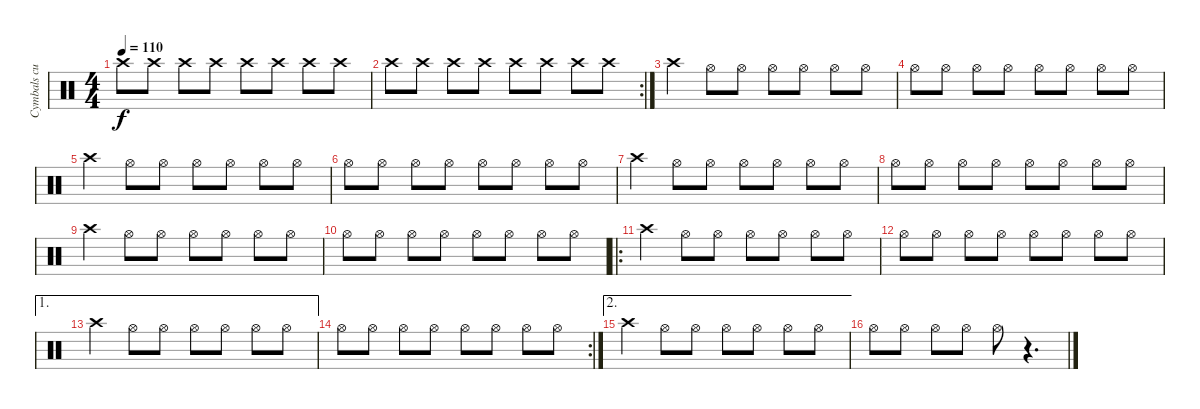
\track ("Cymbals cuz I'm lazy" "Cymbals cu") {instrument percussion}
\staff {score}
\articulation defaults
\ts (4 4)
\tempo 110
\clef neutral
\ks c "Crash high (hit)".8{dy f} "Crash high (hit)".8 "Crash high (hit)".8 "Crash high (hit)".8 "Crash high (hit)".8 "Crash high (hit)".8 "Crash high (hit)".8 "Crash high (hit)".8
|
\rc 2 "Crash high (hit)".8 "Crash high (hit)".8 "Crash high (hit)".8 "Crash high (hit)".8 "Crash high (hit)".8 "Crash high (hit)".8 "Crash high (hit)".8 "Crash high (hit)".8
|
"Crash high (hit)".4 "Hi-Hat (open)".8 "Hi-Hat (open)".8 "Hi-Hat (open)".8 "Hi-Hat (open)".8 "Hi-Hat (open)".8 "Hi-Hat (open)".8 |
"Hi-Hat (open)".8 "Hi-Hat (open)".8 "Hi-Hat (open)".8 "Hi-Hat (open)".8 "Hi-Hat (open)".8 "Hi-Hat (open)".8 "Hi-Hat (open)".8 "Hi-Hat (open)".8 |
"Crash high (hit)".4 "Hi-Hat (open)".8 "Hi-Hat (open)".8 "Hi-Hat (open)".8 "Hi-Hat (open)".8 "Hi-Hat (open)".8 "Hi-Hat (open)".8 |
"Hi-Hat (open)".8 "Hi-Hat (open)".8 "Hi-Hat (open)".8 "Hi-Hat (open)".8 "Hi-Hat (open)".8 "Hi-Hat (open)".8 "Hi-Hat (open)".8 "Hi-Hat (open)".8 |
"Crash high (hit)".4 "Hi-Hat (open)".8 "Hi-Hat (open)".8 "Hi-Hat (open)".8 "Hi-Hat (open)".8 "Hi-Hat (open)".8 "Hi-Hat (open)".8 |
"Hi-Hat (open)".8 "Hi-Hat (open)".8 "Hi-Hat (open)".8 "Hi-Hat (open)".8 "Hi-Hat (open)".8 "Hi-Hat (open)".8 "Hi-Hat (open)".8 "Hi-Hat (open)".8 |
"Crash high (hit)".4 "Hi-Hat (open)".8 "Hi-Hat (open)".8 "Hi-Hat (open)".8 "Hi-Hat (open)".8 "Hi-Hat (open)".8 "Hi-Hat (open)".8 |
"Hi-Hat (open)".8 "Hi-Hat (open)".8 "Hi-Hat (open)".8 "Hi-Hat (open)".8 "Hi-Hat (open)".8 "Hi-Hat (open)".8 "Hi-Hat (open)".8 "Hi-Hat (open)".8 |
\ro "Crash high (hit)".4 "Hi-Hat (open)".8 "Hi-Hat (open)".8 "Hi-Hat (open)".8 "Hi-Hat (open)".8 "Hi-Hat (open)".8 "Hi-Hat (open)".8
|
"Hi-Hat (open)".8 "Hi-Hat (open)".8 "Hi-Hat (open)".8 "Hi-Hat (open)".8 "Hi-Hat (open)".8 "Hi-Hat (open)".8 "Hi-Hat (open)".8 "Hi-Hat (open)".8 |
\ae 1 "Crash high (hit)".4 "Hi-Hat (open)".8 "Hi-Hat (open)".8 "Hi-Hat (open)".8 "Hi-Hat (open)".8 "Hi-Hat (open)".8 "Hi-Hat (open)".8
|
\rc 2 "Hi-Hat (open)".8 "Hi-Hat (open)".8 "Hi-Hat (open)".8 "Hi-Hat (open)".8 "Hi-Hat (open)".8 "Hi-Hat (open)".8 "Hi-Hat (open)".8 "Hi-Hat (open)".8
|
\ae 2 "Crash high (hit)".4 "Hi-Hat (open)".8 "Hi-Hat (open)".8 "Hi-Hat (open)".8 "Hi-Hat (open)".8 "Hi-Hat (open)".8 "Hi-Hat (open)".8
|
"Hi-Hat (open)".8 "Hi-Hat (open)".8 "Hi-Hat (open)".8 "Hi-Hat (open)".8 "Hi-Hat (open)".8 r.4{d}
